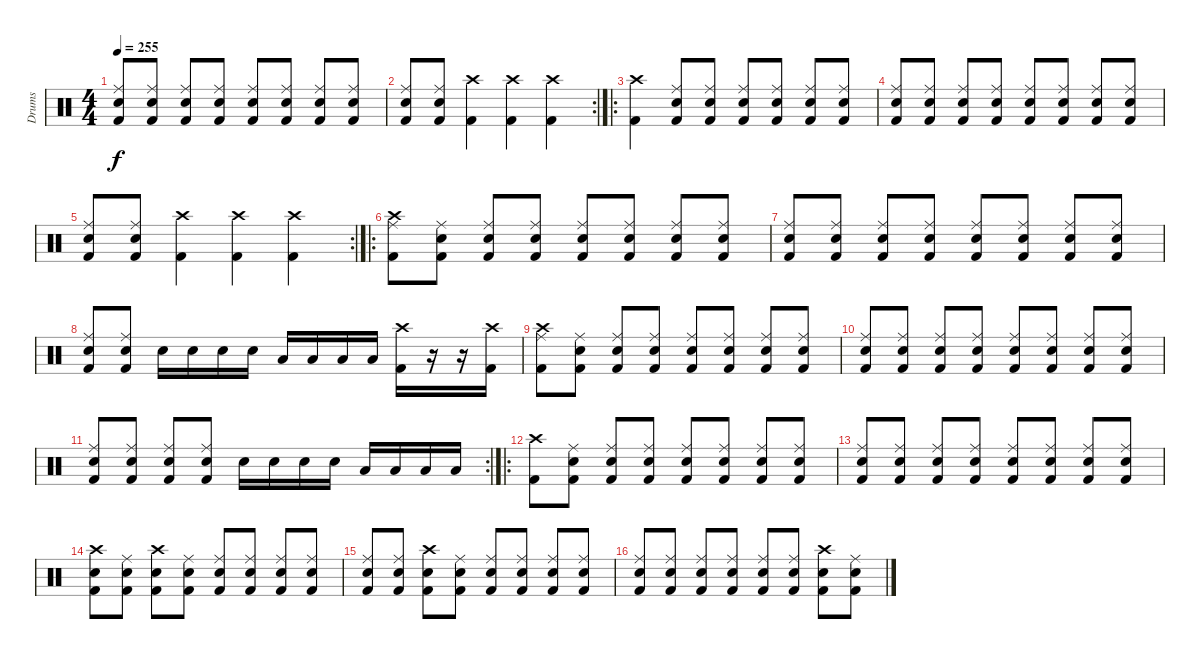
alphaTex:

\track ("Drums" "Drums") {instrument percussion}
\staff {score}
\articulation defaults
\ts (4 4)
\tempo 255
\clef neutral
\ks c
("Snare (hit) 2" "Ride (middle)" "Kick (hit) 2").8{dy f} ("Snare (hit) 2" "Ride (middle)" "Kick (hit) 2").8 ("Snare (hit) 2" "Ride (middle)" "Kick (hit) 2").8 ("Snare (hit) 2" "Ride (middle)" "Kick (hit) 2").8 ("Snare (hit) 2" "Ride (middle)" "Kick (hit) 2").8 ("Snare (hit) 2" "Ride (middle)" "Kick (hit) 2").8 ("Snare (hit) 2" "Ride (middle)" "Kick (hit) 2").8 ("Snare (hit) 2" "Ride (middle)" "Kick (hit) 2").8 |
\rc 2
("Snare (hit) 2" "Ride (middle)" "Kick (hit) 2").8 ("Snare (hit) 2" "Ride (middle)" "Kick (hit) 2").8 ("Crash high (hit)" "Kick (hit) 2").4 ("Crash high (hit)" "Kick (hit) 2").4 ("Crash high (hit)" "Kick (hit) 2").4 |
\ro
("Crash high (hit)" "Kick (hit) 2").4 ("Snare (hit) 2" "Ride (middle)" "Kick (hit) 2").8 ("Snare (hit) 2" "Ride (middle)" "Kick (hit) 2").8 ("Snare (hit) 2" "Ride (middle)" "Kick (hit) 2").8 ("Snare (hit) 2" "Ride (middle)" "Kick (hit) 2").8 ("Snare (hit) 2" "Ride (middle)" "Kick (hit) 2").8 ("Snare (hit) 2" "Ride (middle)" "Kick (hit) 2").8 |
("Snare (hit) 2" "Ride (middle)" "Kick (hit) 2").8 ("Snare (hit) 2" "Ride (middle)" "Kick (hit) 2").8 ("Snare (hit) 2" "Ride (middle)" "Kick (hit) 2").8 ("Snare (hit) 2" "Ride (middle)" "Kick (hit) 2").8 ("Snare (hit) 2" "Ride (middle)" "Kick (hit) 2").8 ("Snare (hit) 2" "Ride (middle)" "Kick (hit) 2").8 ("Snare (hit) 2" "Ride (middle)" "Kick (hit) 2").8 ("Snare (hit) 2" "Ride (middle)" "Kick (hit) 2").8 |
\rc 2
("Snare (hit) 2" "Ride (middle)" "Kick (hit) 2").8 ("Snare (hit) 2" "Ride (middle)" "Kick (hit) 2").8 ("Crash high (hit)" "Kick (hit) 2").4 ("Crash high (hit)" "Kick (hit) 2").4 ("Crash high (hit)" "Kick (hit) 2").4 |
\ro
("Crash high (hit)" "Ride (middle)" "Kick (hit) 2").8 ("Snare (hit) 2" "Ride (middle)" "Kick (hit) 2").8 ("Snare (hit) 2" "Ride (middle)" "Kick (hit) 2").8 ("Snare (hit) 2" "Ride (middle)" "Kick (hit) 2").8 ("Snare (hit) 2" "Ride (middle)" "Kick (hit) 2").8 ("Snare (hit) 2" "Ride (middle)" "Kick (hit) 2").8 ("Snare (hit) 2" "Ride (middle)" "Kick (hit) 2").8 ("Snare (hit) 2" "Ride (middle)" "Kick (hit) 2").8 |
("Snare (hit) 2" "Ride (middle)" "Kick (hit) 2").8 ("Snare (hit) 2" "Ride (middle)" "Kick (hit) 2").8 ("Snare (hit) 2" "Ride (middle)" "Kick (hit) 2").8 ("Snare (hit) 2" "Ride (middle)" "Kick (hit) 2").8 ("Snare (hit) 2" "Ride (middle)" "Kick (hit) 2").8 ("Snare (hit) 2" "Ride (middle)" "Kick (hit) 2").8 ("Snare (hit) 2" "Ride (middle)" "Kick (hit) 2").8 ("Snare (hit) 2" "Ride (middle)" "Kick (hit) 2").8 |
("Snare (hit) 2" "Ride (middle)" "Kick (hit) 2").8 ("Snare (hit) 2" "Ride (middle)" "Kick (hit) 2").8 "Snare (hit) 2".16 "Snare (hit) 2".16 "Snare (hit) 2".16 "Snare (hit) 2".16 "Low Floor Tom (hit)".16 "Low Floor Tom (hit)".16 "Low Floor Tom (hit)".16 "Low Floor Tom (hit)".16 ("Crash high (hit)" "Kick (hit) 2").16 r.16 r.16 ("Crash high (hit)" "Kick (hit) 2").16 |
("Crash high (hit)" "Ride (middle)" "Kick (hit) 2").8 ("Snare (hit) 2" "Ride (middle)" "Kick (hit) 2").8 ("Snare (hit) 2" "Ride (middle)" "Kick (hit) 2").8 ("Snare (hit) 2" "Ride (middle)" "Kick (hit) 2").8 ("Snare (hit) 2" "Ride (middle)" "Kick (hit) 2").8 ("Snare (hit) 2" "Ride (middle)" "Kick (hit) 2").8 ("Snare (hit) 2" "Ride (middle)" "Kick (hit) 2").8 ("Snare (hit) 2" "Ride (middle)" "Kick (hit) 2").8 |
("Snare (hit) 2" "Ride (middle)" "Kick (hit) 2").8 ("Snare (hit) 2" "Ride (middle)" "Kick (hit) 2").8 ("Snare (hit) 2" "Ride (middle)" "Kick (hit) 2").8 ("Snare (hit) 2" "Ride (middle)" "Kick (hit) 2").8 ("Snare (hit) 2" "Ride (middle)" "Kick (hit) 2").8 ("Snare (hit) 2" "Ride (middle)" "Kick (hit) 2").8 ("Snare (hit) 2" "Ride (middle)" "Kick (hit) 2").8 ("Snare (hit) 2" "Ride (middle)" "Kick (hit) 2").8 |
\rc 2
("Snare (hit) 2" "Ride (middle)" "Kick (hit) 2").8 ("Snare (hit) 2" "Ride (middle)" "Kick (hit) 2").8 ("Snare (hit) 2" "Ride (middle)" "Kick (hit) 2").8 ("Snare (hit) 2" "Ride (middle)" "Kick (hit) 2").8 "Snare (hit) 2".16 "Snare (hit) 2".16 "Snare (hit) 2".16 "Snare (hit) 2".16 "Low Floor Tom (hit)".16 "Low Floor Tom (hit)".16 "Low Tom (hit)".16 "Low Tom (hit)".16 |
\ro
("Crash high (hit)" "Kick (hit) 2").8 ("Snare (hit) 2" "Ride (middle)" "Kick (hit) 2").8 ("Snare (hit) 2" "Ride (middle)" "Kick (hit) 2").8 ("Snare (hit) 2" "Ride (middle)" "Kick (hit) 2").8 ("Snare (hit) 2" "Ride (middle)" "Kick (hit) 2").8 ("Snare (hit) 2" "Ride (middle)" "Kick (hit) 2").8 ("Snare (hit) 2" "Ride (middle)" "Kick (hit) 2").8 ("Snare (hit) 2" "Ride (middle)" "Kick (hit) 2").8 |
("Snare (hit) 2" "Ride (middle)" "Kick (hit) 2").8 ("Snare (hit) 2" "Ride (middle)" "Kick (hit) 2").8 ("Snare (hit) 2" "Ride (middle)" "Kick (hit) 2").8 ("Snare (hit) 2" "Ride (middle)" "Kick (hit) 2").8 ("Snare (hit) 2" "Ride (middle)" "Kick (hit) 2").8 ("Snare (hit) 2" "Ride (middle)" "Kick (hit) 2").8 ("Snare (hit) 2" "Ride (middle)" "Kick (hit) 2").8 ("Snare (hit) 2" "Ride (middle)" "Kick (hit) 2").8 |
("Crash high (hit)" "Snare (hit) 2" "Kick (hit) 2").8 ("Snare (hit) 2" "Ride (middle)" "Kick (hit) 2").8 ("Snare (hit) 2" "Crash high (hit)" "Kick (hit) 2").8 ("Snare (hit) 2" "Ride (middle)" "Kick (hit) 2").8 ("Snare (hit) 2" "Ride (middle)" "Kick (hit) 2").8 ("Snare (hit) 2" "Ride (middle)" "Kick (hit) 2").8 ("Snare (hit) 2" "Ride (middle)" "Kick (hit) 2").8 ("Snare (hit) 2" "Ride (middle)" "Kick (hit) 2").8 |
("Ride (middle)" "Snare (hit) 2" "Kick (hit) 2").8 ("Snare (hit) 2" "Ride (middle)" "Kick (hit) 2").8 ("Snare (hit) 2" "Crash high (hit)" "Kick (hit) 2").8 ("Snare (hit) 2" "Ride (middle)" "Kick (hit) 2").8 ("Snare (hit) 2" "Ride (middle)" "Kick (hit) 2").8 ("Snare (hit) 2" "Ride (middle)" "Kick (hit) 2").8 ("Snare (hit) 2" "Ride (middle)" "Kick (hit) 2").8 ("Snare (hit) 2" "Ride (middle)" "Kick (hit) 2").8 |
("Snare (hit) 2" "Ride (middle)" "Kick (hit) 2").8 ("Snare (hit) 2" "Ride (middle)" "Kick (hit) 2").8 ("Snare (hit) 2" "Ride (middle)" "Kick (hit) 2").8 ("Snare (hit) 2" "Ride (middle)" "Kick (hit) 2").8 ("Snare (hit) 2" "Ride (middle)" "Kick (hit) 2").8 ("Snare (hit) 2" "Ride (middle)" "Kick (hit) 2").8 ("Snare (hit) 2" "Crash high (hit)" "Kick (hit) 2").8 ("Snare (hit) 2" "Ride (middle)" "Kick (hit) 2").8
